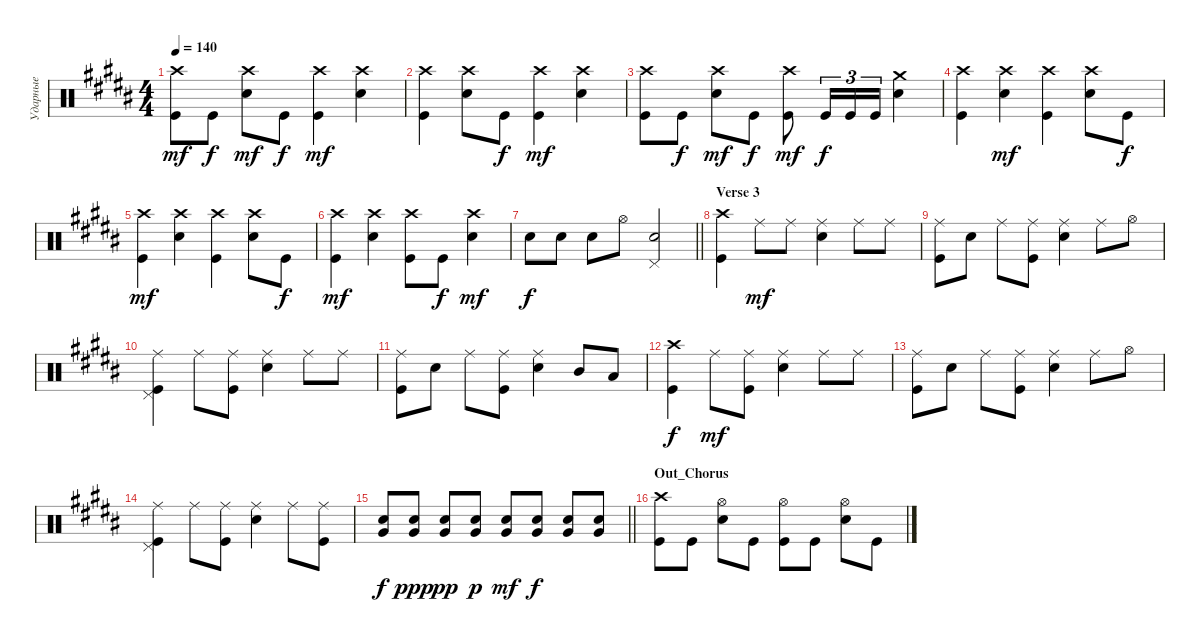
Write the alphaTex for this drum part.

\track ("Ударные" "Ударные") {instrument percussion}
\staff {score}
\articulation defaults
\ts (4 4)
\tempo 140
\clef neutral
\ks g#minor
("Kick (hit)" "Crash high (hit)").8{dy mf} "Kick (hit)".8{dy f} ("Snare (hit) 2" "Crash high (hit)").8{dy mf} "Kick (hit)".8{dy f} ("Kick (hit)" "Crash high (hit)").4{dy mf} ("Snare (hit) 2" "Crash high (hit)").4 |
("Kick (hit)" "Crash high (hit)").4 ("Snare (hit) 2" "Crash high (hit)").8 "Kick (hit)".8{dy f} ("Kick (hit)" "Crash high (hit)").4{dy mf} ("Snare (hit) 2" "Crash high (hit)").4 |
("Kick (hit)" "Crash high (hit)").8 "Kick (hit)".8{dy f} ("Snare (hit) 2" "Crash high (hit)").8{dy mf} "Kick (hit)".8{dy f} ("Kick (hit)" "Crash high (hit)").8{dy mf} "Kick (hit)".16{tu (3 2) dy f} "Kick (hit)".16{tu (3 2)} "Kick (hit)".16{tu (3 2)} ("Snare (hit) 2" "Crash medium (hit)").4 |
("Kick (hit)" "Crash high (hit)").4 ("Snare (hit) 2" "Crash high (hit)").4{dy mf} ("Kick (hit)" "Crash high (hit)").4 ("Snare (hit) 2" "Crash high (hit)").8 "Kick (hit)".8{dy f} |
("Kick (hit)" "Crash high (hit)").4{dy mf} ("Snare (hit) 2" "Crash high (hit)").4 ("Kick (hit)" "Crash high (hit)").4 ("Snare (hit) 2" "Crash high (hit)").8 "Kick (hit)".8{dy f} |
("Kick (hit)" "Crash high (hit)").4{dy mf} ("Snare (hit) 2" "Crash high (hit)").4 ("Kick (hit)" "Crash high (hit)").8 "Kick (hit)".8{dy f} ("Snare (hit) 2" "Crash high (hit)").4{dy mf} |
\barLineRight lightlight "Snare (hit) 2".8{dy f} "Snare (hit) 2".8 "Snare (hit) 2".8 "Hi-Hat (open)".8
("Snare (hit) 2" "Pedal Hi-Hat (hit)").2 |
\section ("" "Verse 3")
("Kick (hit)" "Crash high (hit)").4 "Ride (middle)".8{dy mf} "Ride (middle)".8 ("Ride (middle)" "Snare (hit) 2").4 "Ride (middle)".8 "Ride (middle)".8 |
("Ride (middle)" "Kick (hit)").8 "Snare (hit) 2".8 "Ride (middle)".8 ("Ride (middle)" "Kick (hit)").8 ("Snare (hit) 2" "Ride (middle)").4 "Ride (middle)".8 "Hi-Hat (open)".8 |
("Kick (hit)" "Ride (middle)" "Pedal Hi-Hat (hit)").4 "Ride (middle)".8 ("Ride (middle)" "Kick (hit)").8 ("Ride (middle)" "Snare (hit) 2").4 "Ride (middle)".8 "Ride (middle)".8 |
("Ride (middle)" "Kick (hit)").8 "Snare (hit) 2".8 "Ride (middle)".8 ("Ride (middle)" "Kick (hit)").8 ("Snare (hit) 2" "Ride (middle)").4 "Mid Tom (hit)".8 "Low Tom (hit)".8 |
("Kick (hit)" "Crash high (hit)").4{dy f} "Ride (middle)".8{dy mf} ("Ride (middle)" "Kick (hit)").8 ("Ride (middle)" "Snare (hit) 2").4 "Ride (middle)".8 "Ride (middle)".8 |
("Ride (middle)" "Kick (hit)").8 "Snare (hit) 2".8 "Ride (middle)".8 ("Ride (middle)" "Kick (hit)").8 ("Snare (hit) 2" "Ride (middle)").4 "Ride (middle)".8 "Hi-Hat (open)".8 |
("Kick (hit)" "Ride (middle)" "Pedal Hi-Hat (hit)").4 "Ride (middle)".8 ("Ride (middle)" "Kick (hit)").8 ("Ride (middle)" "Snare (hit) 2").4 "Ride (middle)".8 ("Ride (middle)" "Kick (hit)").8 |
\barLineRight lightlight
("Very Low Tom (hit)" "Snare (hit) 2").8{bd 60 dy f} ("Very Low Tom (hit)" "Snare (hit) 2").8{bd 60 dy ppp} ("Very Low Tom (hit)" "Snare (hit) 2").8{bd 60 dy pp} ("Very Low Tom (hit)" "Snare (hit) 2").8{bd 60 dy p} ("Very Low Tom (hit)" "Snare (hit) 2").8{bd 60 dy mf} ("Very Low Tom (hit)" "Snare (hit) 2").8{bd 60 dy f} ("Very Low Tom (hit)" "Snare (hit) 2").8{bd 60} ("Very Low Tom (hit)" "Snare (hit) 2").8{bd 60} |
\section ("" "Out_Chorus")
("Kick (hit)" "Crash high (hit)").8 "Kick (hit)".8 ("Snare (hit) 2" "Hi-Hat (open)").8 "Kick (hit)".8 ("Kick (hit)" "Hi-Hat (open)").8 "Kick (hit)".8 ("Snare (hit) 2" "Hi-Hat (open)").8 "Kick (hit)".8
